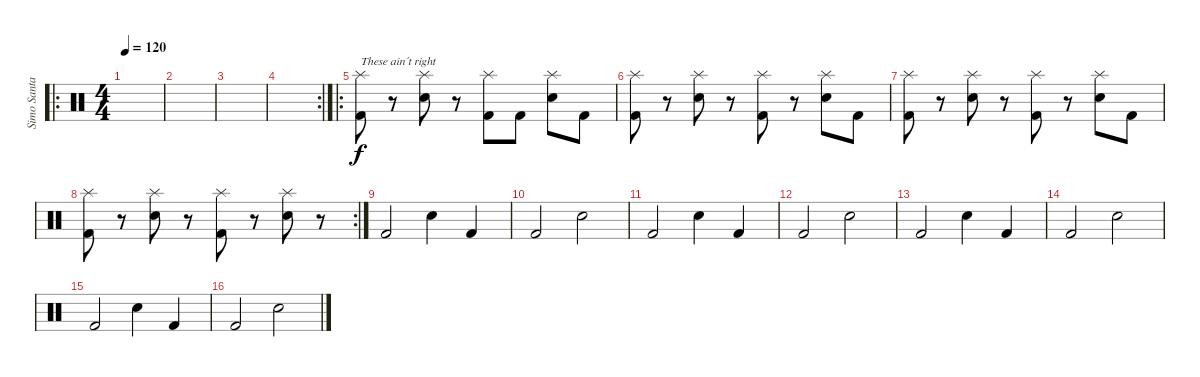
\track ("Simo Santapukki" "Simo Santa") {instrument percussion}
\staff {score}
\articulation defaults
\ro
\ts (4 4)
\tempo 120
\clef neutral
\ks c
|
|
|
\rc 2
|
\ro
("Kick (hit) 2" "Splash (hit)").8{txt "These ain´t right "} r.8 ("Electric Snare (hit)" "Splash (hit)").8 r.8 ("Kick (hit) 2" "Splash (hit)").8 "Kick (hit) 2".8 ("Electric Snare (hit)" "Splash (hit)").8 "Kick (hit) 2".8 |
("Kick (hit) 2" "Splash (hit)").8 r.8 ("Electric Snare (hit)" "Splash (hit)").8 r.8 ("Kick (hit) 2" "Splash (hit)").8 r.8 ("Electric Snare (hit)" "Splash (hit)").8 "Kick (hit) 2".8 |
("Kick (hit) 2" "Splash (hit)").8 r.8 ("Electric Snare (hit)" "Splash (hit)").8 r.8 ("Kick (hit) 2" "Splash (hit)").8 r.8 ("Electric Snare (hit)" "Splash (hit)").8 "Kick (hit) 2".8 |
\rc 2
("Kick (hit) 2" "Splash (hit)").8 r.8 ("Electric Snare (hit)" "Splash (hit)").8 r.8 ("Kick (hit) 2" "Splash (hit)").8 r.8 ("Electric Snare (hit)" "Splash (hit)").8 r.8 |
"Kick (hit) 2".2 "Electric Snare (hit)".4 "Kick (hit) 2".4 |
"Kick (hit) 2".2 "Electric Snare (hit)".2 |
"Kick (hit) 2".2 "Electric Snare (hit)".4 "Kick (hit) 2".4 |
"Kick (hit) 2".2 "Electric Snare (hit)".2 |
"Kick (hit) 2".2 "Electric Snare (hit)".4 "Kick (hit) 2".4 |
"Kick (hit) 2".2 "Electric Snare (hit)".2 |
"Kick (hit) 2".2 "Electric Snare (hit)".4 "Kick (hit) 2".4 |
"Kick (hit) 2".2 "Electric Snare (hit)".2
